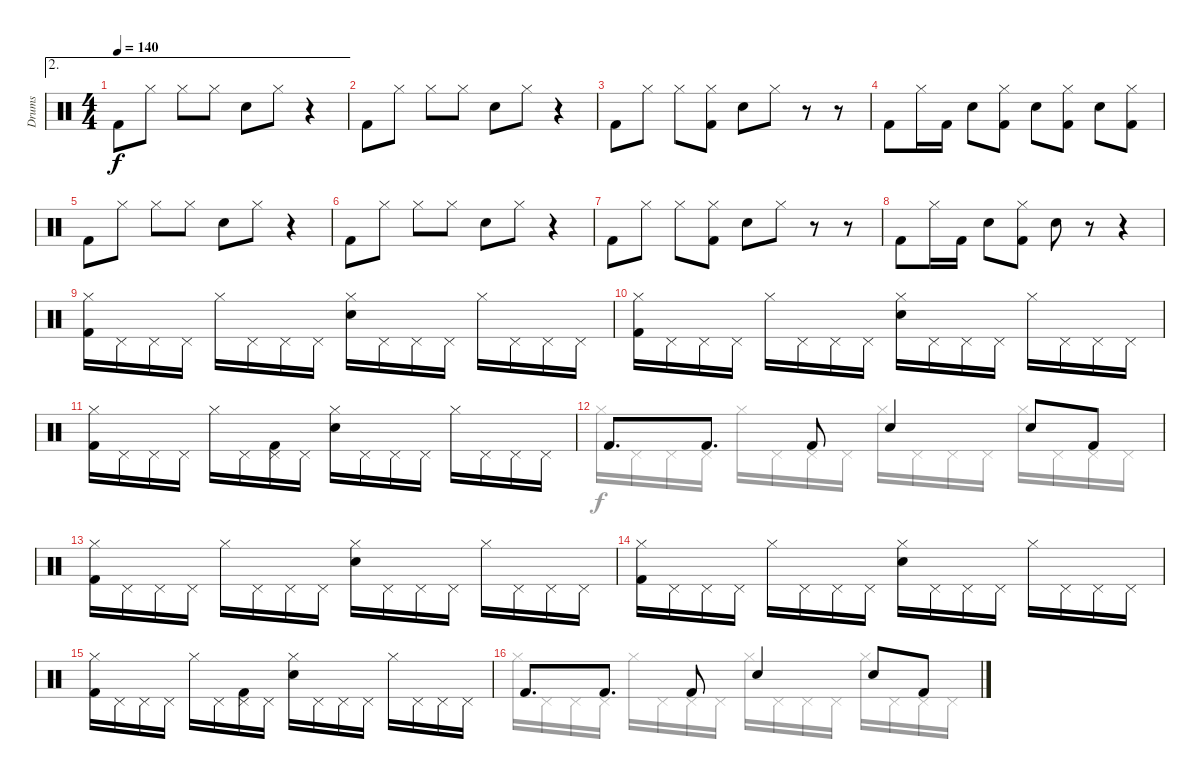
\track ("Drums" "Drums") {instrument percussion}
\staff {score}
\articulation defaults
\voice
\ae 2
\ts (4 4)
\tempo 140
\clef neutral
\ks c "Kick (hit) 2".8{dy f} "Hi-Hat (closed)".8 "Hi-Hat (closed)".8 "Hi-Hat (closed)".8 "Snare (hit) 2".8 "Hi-Hat (closed)".8
r.4 |
"Kick (hit) 2".8 "Hi-Hat (closed)".8 "Hi-Hat (closed)".8 "Hi-Hat (closed)".8 "Snare (hit) 2".8 "Hi-Hat (closed)".8 r.4 |
"Kick (hit) 2".8 "Hi-Hat (closed)".8 "Hi-Hat (closed)".8 ("Hi-Hat (closed)" "Kick (hit) 2").8 "Snare (hit) 2".8 "Hi-Hat (closed)".8 r.8 r.8 |
"Kick (hit) 2".8 "Hi-Hat (closed)".16 "Kick (hit) 2".16 "Snare (hit) 2".8 ("Hi-Hat (closed)" "Kick (hit) 2").8 "Snare (hit) 2".8 ("Hi-Hat (closed)" "Kick (hit) 2").8 "Snare (hit) 2".8 ("Hi-Hat (closed)" "Kick (hit) 2").8 |
"Kick (hit) 2".8 "Hi-Hat (closed)".8 "Hi-Hat (closed)".8 "Hi-Hat (closed)".8 "Snare (hit) 2".8 "Hi-Hat (closed)".8 r.4 |
"Kick (hit) 2".8 "Hi-Hat (closed)".8 "Hi-Hat (closed)".8 "Hi-Hat (closed)".8 "Snare (hit) 2".8 "Hi-Hat (closed)".8 r.4 |
"Kick (hit) 2".8 "Hi-Hat (closed)".8 "Hi-Hat (closed)".8 ("Hi-Hat (closed)" "Kick (hit) 2").8 "Snare (hit) 2".8 "Hi-Hat (closed)".8 r.8 r.8 |
"Kick (hit) 2".8 "Hi-Hat (closed)".16 "Kick (hit) 2".16 "Snare (hit) 2".8 ("Hi-Hat (closed)" "Kick (hit) 2").8 "Snare (hit) 2".8 r.8 r.4 |
("Hi-Hat (closed)" "Kick (hit) 2").16 "Pedal Hi-Hat (hit)".16 "Pedal Hi-Hat (hit)".16 "Pedal Hi-Hat (hit)".16 "Hi-Hat (closed)".16 "Pedal Hi-Hat (hit)".16 "Pedal Hi-Hat (hit)".16 "Pedal Hi-Hat (hit)".16 ("Hi-Hat (closed)" "Snare (hit) 2").16 "Pedal Hi-Hat (hit)".16 "Pedal Hi-Hat (hit)".16 "Pedal Hi-Hat (hit)".16 "Hi-Hat (closed)".16 "Pedal Hi-Hat (hit)".16 "Pedal Hi-Hat (hit)".16 "Pedal Hi-Hat (hit)".16 |
("Hi-Hat (closed)" "Kick (hit) 2").16 "Pedal Hi-Hat (hit)".16 "Pedal Hi-Hat (hit)".16 "Pedal Hi-Hat (hit)".16 "Hi-Hat (closed)".16 "Pedal Hi-Hat (hit)".16 "Pedal Hi-Hat (hit)".16 "Pedal Hi-Hat (hit)".16 ("Hi-Hat (closed)" "Snare (hit) 2").16 "Pedal Hi-Hat (hit)".16 "Pedal Hi-Hat (hit)".16 "Pedal Hi-Hat (hit)".16 "Hi-Hat (closed)".16 "Pedal Hi-Hat (hit)".16 "Pedal Hi-Hat (hit)".16 "Pedal Hi-Hat (hit)".16 |
("Hi-Hat (closed)" "Kick (hit) 2").16 "Pedal Hi-Hat (hit)".16 "Pedal Hi-Hat (hit)".16 "Pedal Hi-Hat (hit)".16 "Hi-Hat (closed)".16 "Pedal Hi-Hat (hit)".16 ("Pedal Hi-Hat (hit)" "Kick (hit) 2").16 "Pedal Hi-Hat (hit)".16 ("Hi-Hat (closed)" "Snare (hit) 2").16 "Pedal Hi-Hat (hit)".16 "Pedal Hi-Hat (hit)".16 "Pedal Hi-Hat (hit)".16 "Hi-Hat (closed)".16 "Pedal Hi-Hat (hit)".16 "Pedal Hi-Hat (hit)".16 "Pedal Hi-Hat (hit)".16 |
"Kick (hit) 2".8{d} "Kick (hit) 2".8{d} "Kick (hit) 2".8 "Snare (hit) 2".4 "Snare (hit) 2".8 "Kick (hit) 2".8 |
("Hi-Hat (closed)" "Kick (hit) 2").16 "Pedal Hi-Hat (hit)".16 "Pedal Hi-Hat (hit)".16 "Pedal Hi-Hat (hit)".16 "Hi-Hat (closed)".16 "Pedal Hi-Hat (hit)".16 "Pedal Hi-Hat (hit)".16 "Pedal Hi-Hat (hit)".16 ("Hi-Hat (closed)" "Snare (hit) 2").16 "Pedal Hi-Hat (hit)".16 "Pedal Hi-Hat (hit)".16 "Pedal Hi-Hat (hit)".16 "Hi-Hat (closed)".16 "Pedal Hi-Hat (hit)".16 "Pedal Hi-Hat (hit)".16 "Pedal Hi-Hat (hit)".16 |
("Hi-Hat (closed)" "Kick (hit) 2").16 "Pedal Hi-Hat (hit)".16 "Pedal Hi-Hat (hit)".16 "Pedal Hi-Hat (hit)".16 "Hi-Hat (closed)".16 "Pedal Hi-Hat (hit)".16 "Pedal Hi-Hat (hit)".16 "Pedal Hi-Hat (hit)".16 ("Hi-Hat (closed)" "Snare (hit) 2").16 "Pedal Hi-Hat (hit)".16 "Pedal Hi-Hat (hit)".16 "Pedal Hi-Hat (hit)".16 "Hi-Hat (closed)".16 "Pedal Hi-Hat (hit)".16 "Pedal Hi-Hat (hit)".16 "Pedal Hi-Hat (hit)".16 |
("Hi-Hat (closed)" "Kick (hit) 2").16 "Pedal Hi-Hat (hit)".16 "Pedal Hi-Hat (hit)".16 "Pedal Hi-Hat (hit)".16 "Hi-Hat (closed)".16 "Pedal Hi-Hat (hit)".16 ("Pedal Hi-Hat (hit)" "Kick (hit) 2").16 "Pedal Hi-Hat (hit)".16 ("Hi-Hat (closed)" "Snare (hit) 2").16 "Pedal Hi-Hat (hit)".16 "Pedal Hi-Hat (hit)".16 "Pedal Hi-Hat (hit)".16 "Hi-Hat (closed)".16 "Pedal Hi-Hat (hit)".16 "Pedal Hi-Hat (hit)".16 "Pedal Hi-Hat (hit)".16 |
"Kick (hit) 2".8{d} "Kick (hit) 2".8{d} "Kick (hit) 2".8 "Snare (hit) 2".4 "Snare (hit) 2".8 "Kick (hit) 2".8
\voice
\clef neutral
\ottava regular
\simile none
\ks c
|
|
|
|
|
|
|
|
|
|
|
"Hi-Hat (closed)".16 "Pedal Hi-Hat (hit)".16 "Pedal Hi-Hat (hit)".16 "Pedal Hi-Hat (hit)".16 "Hi-Hat (closed)".16 "Pedal Hi-Hat (hit)".16 "Pedal Hi-Hat (hit)".16 "Pedal Hi-Hat (hit)".16 "Hi-Hat (closed)".16 "Pedal Hi-Hat (hit)".16 "Pedal Hi-Hat (hit)".16 "Pedal Hi-Hat (hit)".16 "Hi-Hat (closed)".16 "Pedal Hi-Hat (hit)".16 "Pedal Hi-Hat (hit)".16 "Pedal Hi-Hat (hit)".16 |
|
|
|
"Hi-Hat (closed)".16 "Pedal Hi-Hat (hit)".16 "Pedal Hi-Hat (hit)".16 "Pedal Hi-Hat (hit)".16 "Hi-Hat (closed)".16 "Pedal Hi-Hat (hit)".16 "Pedal Hi-Hat (hit)".16 "Pedal Hi-Hat (hit)".16 "Hi-Hat (closed)".16 "Pedal Hi-Hat (hit)".16 "Pedal Hi-Hat (hit)".16 "Pedal Hi-Hat (hit)".16 "Hi-Hat (closed)".16 "Pedal Hi-Hat (hit)".16 "Pedal Hi-Hat (hit)".16 "Pedal Hi-Hat (hit)".16
